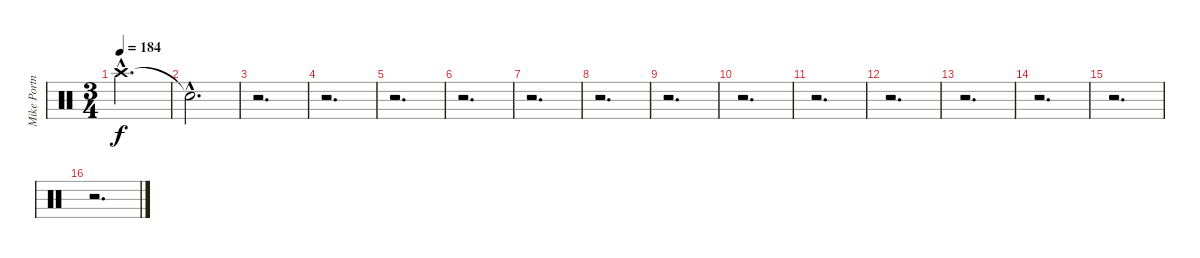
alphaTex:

\track ("Mike Portnoy - Drum" "Mike Portn") {instrument percussion}
\staff {score}
\articulation defaults
\ts (3 4)
\tempo 184
\clef neutral
\ks c "Crash high (hit)"{hac}.2{d dy f}
|
"Snare (hit)"{hac t}.2{d} |
r.2{d} |
r.2{d} |
r.2{d} |
r.2{d} |
r.2{d} |
r.2{d} |
r.2{d} |
r.2{d} |
r.2{d} |
r.2{d} |
r.2{d} |
r.2{d} |
r.2{d} |
r.2{d}
